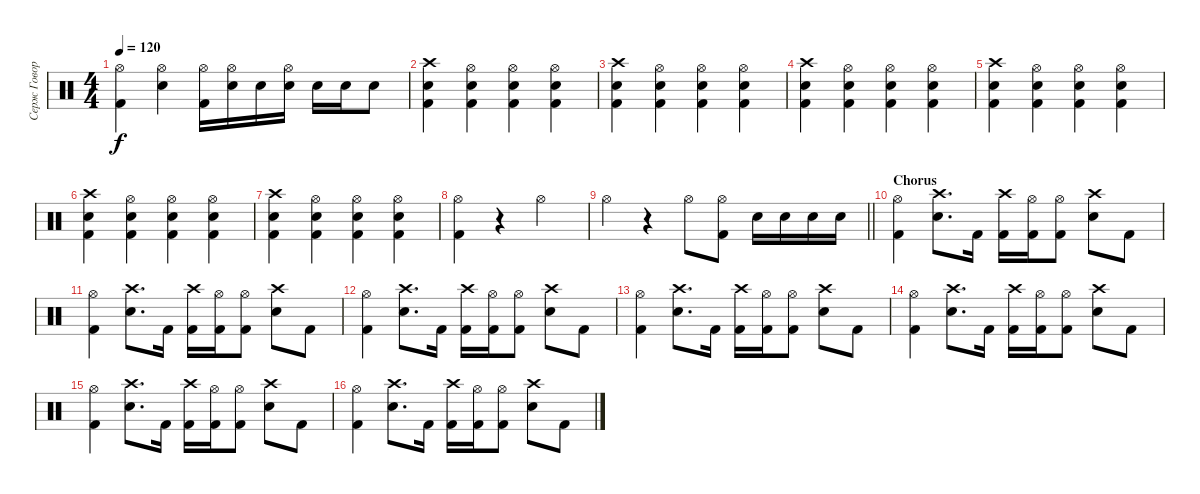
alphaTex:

\track ("Серж Говорун" "Серж Говор") {instrument percussion}
\staff {score}
\articulation defaults
\ts (4 4)
\tempo 120
\clef neutral
\ks c
("Hi-Hat (open)" "Kick (hit) 2").4{dy f} ("Hi-Hat (open)" "Electric Snare (hit)").4 ("Kick (hit) 2" "Hi-Hat (open)").16 ("Hi-Hat (open)" "Electric Snare (hit)").16 "Electric Snare (hit)".16 ("Electric Snare (hit)" "Hi-Hat (open)").16 "Electric Snare (hit)".16 "Electric Snare (hit)".16 "Electric Snare (hit)".8 |
("Crash high (hit)" "Electric Snare (hit)" "Kick (hit) 2").4 ("Hi-Hat (open)" "Electric Snare (hit)" "Kick (hit) 2").4 ("Hi-Hat (open)" "Electric Snare (hit)" "Kick (hit) 2").4 ("Hi-Hat (open)" "Electric Snare (hit)" "Kick (hit) 2").4 |
("Crash high (hit)" "Electric Snare (hit)" "Kick (hit) 2").4 ("Hi-Hat (open)" "Electric Snare (hit)" "Kick (hit) 2").4 ("Hi-Hat (open)" "Electric Snare (hit)" "Kick (hit) 2").4 ("Hi-Hat (open)" "Electric Snare (hit)" "Kick (hit) 2").4 |
("Crash high (hit)" "Electric Snare (hit)" "Kick (hit) 2").4 ("Hi-Hat (open)" "Electric Snare (hit)" "Kick (hit) 2").4 ("Hi-Hat (open)" "Electric Snare (hit)" "Kick (hit) 2").4 ("Hi-Hat (open)" "Electric Snare (hit)" "Kick (hit) 2").4 |
("Crash high (hit)" "Electric Snare (hit)" "Kick (hit) 2").4 ("Hi-Hat (open)" "Electric Snare (hit)" "Kick (hit) 2").4 ("Hi-Hat (open)" "Electric Snare (hit)" "Kick (hit) 2").4 ("Hi-Hat (open)" "Electric Snare (hit)" "Kick (hit) 2").4 |
("Crash high (hit)" "Electric Snare (hit)" "Kick (hit) 2").4 ("Hi-Hat (open)" "Electric Snare (hit)" "Kick (hit) 2").4 ("Hi-Hat (open)" "Electric Snare (hit)" "Kick (hit) 2").4 ("Hi-Hat (open)" "Electric Snare (hit)" "Kick (hit) 2").4 |
("Crash high (hit)" "Electric Snare (hit)" "Kick (hit) 2").4 ("Hi-Hat (open)" "Electric Snare (hit)" "Kick (hit) 2").4 ("Hi-Hat (open)" "Electric Snare (hit)" "Kick (hit) 2").4 ("Hi-Hat (open)" "Electric Snare (hit)" "Kick (hit) 2").4 |
("Hi-Hat (open)" "Kick (hit) 2").4 r.4 "Hi-Hat (open)".2 |
\barLineRight lightlight "Hi-Hat (open)".4
r.4 "Hi-Hat (open)".8 ("Kick (hit) 2" "Hi-Hat (open)").8 "Electric Snare (hit)".16 "Electric Snare (hit)".16 "Electric Snare (hit)".16 "Electric Snare (hit)".16 |
\section ("" "Chorus")
("Hi-Hat (open)" "Kick (hit) 2").4 ("Crash high (hit)" "Electric Snare (hit)").8{d} "Kick (hit) 2".16 ("Kick (hit) 2" "Crash high (hit)").16 ("Kick (hit) 2" "Hi-Hat (open)").16 ("Kick (hit) 2" "Hi-Hat (open)").8 ("Electric Snare (hit)" "Crash high (hit)").8 "Kick (hit) 2".8 |
("Hi-Hat (open)" "Kick (hit) 2").4 ("Crash high (hit)" "Electric Snare (hit)").8{d} "Kick (hit) 2".16 ("Kick (hit) 2" "Crash high (hit)").16 ("Kick (hit) 2" "Hi-Hat (open)").16 ("Kick (hit) 2" "Hi-Hat (open)").8 ("Electric Snare (hit)" "Crash high (hit)").8 "Kick (hit) 2".8 |
("Hi-Hat (open)" "Kick (hit) 2").4 ("Crash high (hit)" "Electric Snare (hit)").8{d} "Kick (hit) 2".16 ("Kick (hit) 2" "Crash high (hit)").16 ("Kick (hit) 2" "Hi-Hat (open)").16 ("Kick (hit) 2" "Hi-Hat (open)").8 ("Electric Snare (hit)" "Crash high (hit)").8 "Kick (hit) 2".8 |
("Hi-Hat (open)" "Kick (hit) 2").4 ("Crash high (hit)" "Electric Snare (hit)").8{d} "Kick (hit) 2".16 ("Kick (hit) 2" "Crash high (hit)").16 ("Kick (hit) 2" "Hi-Hat (open)").16 ("Kick (hit) 2" "Hi-Hat (open)").8 ("Electric Snare (hit)" "Crash high (hit)").8 "Kick (hit) 2".8 |
("Hi-Hat (open)" "Kick (hit) 2").4 ("Crash high (hit)" "Electric Snare (hit)").8{d} "Kick (hit) 2".16 ("Kick (hit) 2" "Crash high (hit)").16 ("Kick (hit) 2" "Hi-Hat (open)").16 ("Kick (hit) 2" "Hi-Hat (open)").8 ("Electric Snare (hit)" "Crash high (hit)").8 "Kick (hit) 2".8 |
("Hi-Hat (open)" "Kick (hit) 2").4 ("Crash high (hit)" "Electric Snare (hit)").8{d} "Kick (hit) 2".16 ("Kick (hit) 2" "Crash high (hit)").16 ("Kick (hit) 2" "Hi-Hat (open)").16 ("Kick (hit) 2" "Hi-Hat (open)").8 ("Electric Snare (hit)" "Crash high (hit)").8 "Kick (hit) 2".8 |
("Hi-Hat (open)" "Kick (hit) 2").4 ("Crash high (hit)" "Electric Snare (hit)").8{d} "Kick (hit) 2".16 ("Kick (hit) 2" "Crash high (hit)").16 ("Kick (hit) 2" "Hi-Hat (open)").16 ("Kick (hit) 2" "Hi-Hat (open)").8 ("Electric Snare (hit)" "Crash high (hit)").8 "Kick (hit) 2".8
